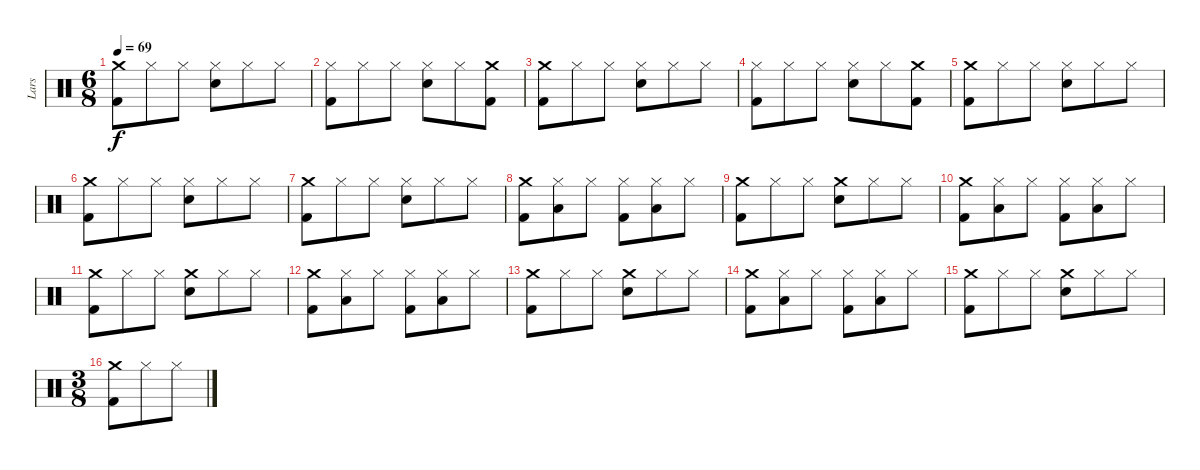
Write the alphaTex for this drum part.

\track ("Lars" "Lars") {instrument percussion}
\staff {score}
\articulation defaults
\ts (6 8)
\tempo 69
\clef neutral
\ks c
("Kick (hit) 2" "Crash medium (hit)").8{dy f} "Hi-Hat (closed)".8 "Hi-Hat (closed)".8 ("Snare (hit) 2" "Hi-Hat (closed)").8 "Hi-Hat (closed)".8 "Hi-Hat (closed)".8 |
("Kick (hit) 2" "Hi-Hat (closed)").8 "Hi-Hat (closed)".8 "Hi-Hat (closed)".8 ("Snare (hit) 2" "Hi-Hat (closed)").8 "Hi-Hat (closed)".8 ("Kick (hit) 2" "Crash medium (hit)").8 |
("Kick (hit) 2" "Crash medium (hit)").8 "Hi-Hat (closed)".8 "Hi-Hat (closed)".8 ("Snare (hit) 2" "Hi-Hat (closed)").8 "Hi-Hat (closed)".8 "Hi-Hat (closed)".8 |
("Kick (hit) 2" "Hi-Hat (closed)").8 "Hi-Hat (closed)".8 "Hi-Hat (closed)".8 ("Snare (hit) 2" "Hi-Hat (closed)").8 "Hi-Hat (closed)".8 ("Kick (hit) 2" "Crash medium (hit)").8 |
("Kick (hit) 2" "Crash medium (hit)").8 "Hi-Hat (closed)".8 "Hi-Hat (closed)".8 ("Snare (hit) 2" "Hi-Hat (closed)").8 "Hi-Hat (closed)".8 "Hi-Hat (closed)".8 |
("Kick (hit) 2" "Crash medium (hit)").8 "Hi-Hat (closed)".8 "Hi-Hat (closed)".8 ("Snare (hit) 2" "Hi-Hat (closed)").8 "Hi-Hat (closed)".8 "Hi-Hat (closed)".8 |
("Kick (hit) 2" "Crash medium (hit)").8 "Hi-Hat (closed)".8 "Hi-Hat (closed)".8 ("Snare (hit) 2" "Hi-Hat (closed)").8 "Hi-Hat (closed)".8 "Hi-Hat (closed)".8 |
("Kick (hit) 2" "Crash medium (hit)").8 ("Low Tom (hit)" "Hi-Hat (closed)").8 "Hi-Hat (closed)".8 ("Kick (hit) 2" "Hi-Hat (closed)").8 ("Low Tom (hit)" "Hi-Hat (closed)").8 "Hi-Hat (closed)".8 |
("Kick (hit) 2" "Crash medium (hit)").8 "Hi-Hat (closed)".8 "Hi-Hat (closed)".8 ("Snare (hit) 2" "Crash medium (hit)").8 "Hi-Hat (closed)".8 "Hi-Hat (closed)".8 |
("Kick (hit) 2" "Crash medium (hit)").8 ("Low Tom (hit)" "Hi-Hat (closed)").8 "Hi-Hat (closed)".8 ("Kick (hit) 2" "Hi-Hat (closed)").8 ("Low Tom (hit)" "Hi-Hat (closed)").8 "Hi-Hat (closed)".8 |
("Kick (hit) 2" "Crash medium (hit)").8 "Hi-Hat (closed)".8 "Hi-Hat (closed)".8 ("Crash medium (hit)" "Snare (hit) 2").8 "Hi-Hat (closed)".8 "Hi-Hat (closed)".8 |
("Kick (hit) 2" "Crash medium (hit)").8 ("Low Tom (hit)" "Hi-Hat (closed)").8 "Hi-Hat (closed)".8 ("Kick (hit) 2" "Hi-Hat (closed)").8 ("Low Tom (hit)" "Hi-Hat (closed)").8 "Hi-Hat (closed)".8 |
("Kick (hit) 2" "Crash medium (hit)").8 "Hi-Hat (closed)".8 "Hi-Hat (closed)".8 ("Snare (hit) 2" "Crash medium (hit)").8 "Hi-Hat (closed)".8 "Hi-Hat (closed)".8 |
("Kick (hit) 2" "Crash medium (hit)").8 ("Low Tom (hit)" "Hi-Hat (closed)").8 "Hi-Hat (closed)".8 ("Kick (hit) 2" "Hi-Hat (closed)").8 ("Low Tom (hit)" "Hi-Hat (closed)").8 "Hi-Hat (closed)".8 |
("Kick (hit) 2" "Crash medium (hit)").8 "Hi-Hat (closed)".8 "Hi-Hat (closed)".8 ("Snare (hit) 2" "Crash medium (hit)").8 "Hi-Hat (closed)".8 "Hi-Hat (closed)".8 |
\ts (3 8)
("Kick (hit) 2" "Crash medium (hit)").8 "Hi-Hat (closed)".8 "Hi-Hat (closed)".8
